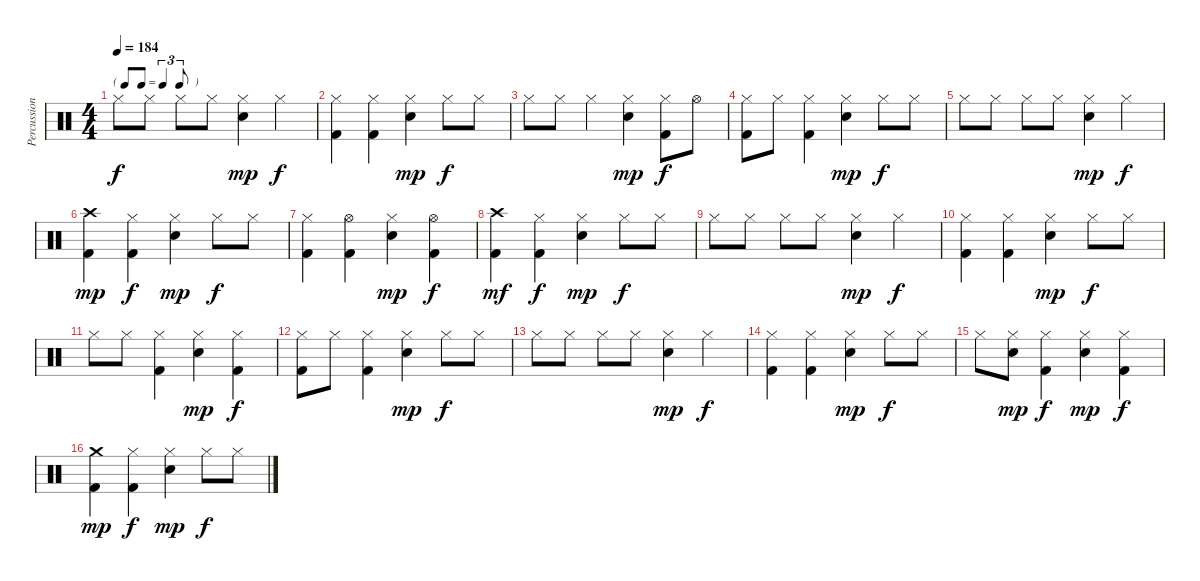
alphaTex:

\track ("Percussion" "Percussion") {instrument percussion}
\staff {score}
\articulation defaults
\ts (4 4)
\tf triplet8th
\tempo 184
\clef neutral
\ks c "Hi-Hat (closed)".8{dy f} "Hi-Hat (closed)".8 "Hi-Hat (closed)".8 "Hi-Hat (closed)".8
("Hi-Hat (closed)" "Electric Snare (hit)").4{dy mp} "Hi-Hat (closed)".4{dy f} |
("Hi-Hat (closed)" "Kick (hit) 2").4 ("Hi-Hat (closed)" "Kick (hit) 2").4 ("Hi-Hat (closed)" "Electric Snare (hit)").4{dy mp} "Hi-Hat (closed)".8{dy f} "Hi-Hat (closed)".8 |
"Hi-Hat (closed)".8 "Hi-Hat (closed)".8 "Hi-Hat (closed)".4 ("Hi-Hat (closed)" "Electric Snare (hit)").4{dy mp} ("Hi-Hat (closed)" "Kick (hit) 2").8{dy f} "Hi-Hat (open)".8 |
("Hi-Hat (closed)" "Kick (hit) 2").8 "Hi-Hat (closed)".8 ("Hi-Hat (closed)" "Kick (hit) 2").4 ("Hi-Hat (closed)" "Electric Snare (hit)").4{dy mp} "Hi-Hat (closed)".8{dy f} "Hi-Hat (closed)".8 |
"Hi-Hat (closed)".8 "Hi-Hat (closed)".8 "Hi-Hat (closed)".8 "Hi-Hat (closed)".8 ("Hi-Hat (closed)" "Electric Snare (hit)").4{dy mp} "Hi-Hat (closed)".4{dy f} |
("Crash high (hit)" "Kick (hit) 2").4{dy mp} ("Hi-Hat (closed)" "Kick (hit) 2").4{dy f} ("Hi-Hat (closed)" "Electric Snare (hit)").4{dy mp} "Hi-Hat (closed)".8{dy f} "Hi-Hat (closed)".8 |
("Hi-Hat (closed)" "Kick (hit) 2").4 ("Hi-Hat (open)" "Kick (hit) 2").4 ("Hi-Hat (closed)" "Electric Snare (hit)").4{dy mp} ("Hi-Hat (open)" "Kick (hit) 2").4{dy f} |
("Crash high (hit)" "Kick (hit) 2").4{dy mf} ("Hi-Hat (closed)" "Kick (hit) 2").4{dy f} ("Hi-Hat (closed)" "Electric Snare (hit)").4{dy mp} "Hi-Hat (closed)".8{dy f} "Hi-Hat (closed)".8 |
"Hi-Hat (closed)".8 "Hi-Hat (closed)".8 "Hi-Hat (closed)".8 "Hi-Hat (closed)".8 ("Hi-Hat (closed)" "Electric Snare (hit)").4{dy mp} "Hi-Hat (closed)".4{dy f} |
("Hi-Hat (closed)" "Kick (hit) 2").4 ("Hi-Hat (closed)" "Kick (hit) 2").4 ("Hi-Hat (closed)" "Electric Snare (hit)").4{dy mp} "Hi-Hat (closed)".8{dy f} "Hi-Hat (closed)".8 |
"Hi-Hat (closed)".8 "Hi-Hat (closed)".8 ("Hi-Hat (closed)" "Kick (hit) 2").4 ("Hi-Hat (closed)" "Electric Snare (hit)").4{dy mp} ("Hi-Hat (closed)" "Kick (hit) 2").4{dy f} |
("Hi-Hat (closed)" "Kick (hit) 2").8 "Hi-Hat (closed)".8 ("Hi-Hat (closed)" "Kick (hit) 2").4 ("Hi-Hat (closed)" "Electric Snare (hit)").4{dy mp} "Hi-Hat (closed)".8{dy f} "Hi-Hat (closed)".8 |
"Hi-Hat (closed)".8 "Hi-Hat (closed)".8 "Hi-Hat (closed)".8 "Hi-Hat (closed)".8 ("Hi-Hat (closed)" "Electric Snare (hit)").4{dy mp} "Hi-Hat (closed)".4{dy f} |
("Hi-Hat (closed)" "Kick (hit) 2").4 ("Hi-Hat (closed)" "Kick (hit) 2").4 ("Hi-Hat (closed)" "Electric Snare (hit)").4{dy mp} "Hi-Hat (closed)".8{dy f} "Hi-Hat (closed)".8 |
"Hi-Hat (closed)".8 ("Hi-Hat (closed)" "Electric Snare (hit)").8{dy mp} ("Hi-Hat (closed)" "Kick (hit) 2").4{dy f} ("Hi-Hat (closed)" "Electric Snare (hit)").4{dy mp} ("Hi-Hat (closed)" "Kick (hit) 2").4{dy f} |
("Crash medium (hit)" "Kick (hit) 2").4{dy mp} ("Hi-Hat (closed)" "Kick (hit) 2").4{dy f} ("Hi-Hat (closed)" "Electric Snare (hit)").4{dy mp} "Hi-Hat (closed)".8{dy f} "Hi-Hat (closed)".8
